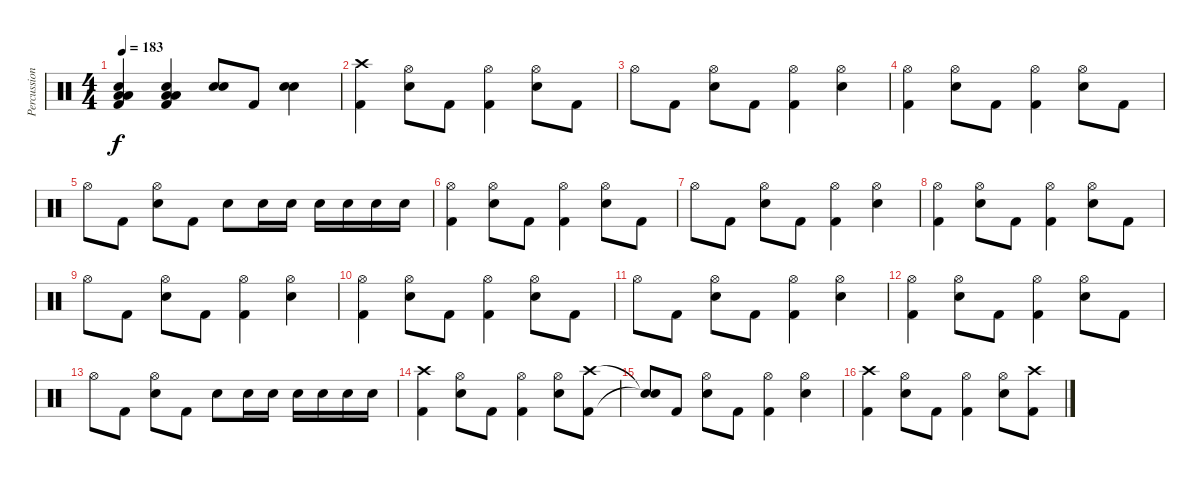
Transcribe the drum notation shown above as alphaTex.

\track ("Percussion" "Percussion") {instrument percussion}
\staff {score}
\articulation defaults
\ts (4 4)
\tempo 183
\clef neutral
\ks c
("Electric Snare (hit)" "Low Floor Tom (hit)" "Low Floor Tom (hit)" "Kick (hit) 2").4{dy f} ("Electric Snare (hit)" "Low Floor Tom (hit)" "Low Floor Tom (hit)" "Kick (hit) 2").4 ("Electric Snare (hit)" "Electric Snare (hit)").8 "Kick (hit) 2".8 ("Electric Snare (hit)" "Electric Snare (hit)").4 |
("Crash high (hit)" "Kick (hit) 2").4 ("Hi-Hat (open)" "Electric Snare (hit)").8 "Kick (hit) 2".8 ("Hi-Hat (open)" "Kick (hit) 2").4 ("Hi-Hat (open)" "Electric Snare (hit)").8 "Kick (hit) 2".8 |
"Hi-Hat (open)".8 "Kick (hit) 2".8 ("Hi-Hat (open)" "Electric Snare (hit)").8 "Kick (hit) 2".8 ("Hi-Hat (open)" "Kick (hit) 2").4 ("Hi-Hat (open)" "Electric Snare (hit)").4 |
("Hi-Hat (open)" "Kick (hit) 2").4 ("Hi-Hat (open)" "Electric Snare (hit)").8 "Kick (hit) 2".8 ("Hi-Hat (open)" "Kick (hit) 2").4 ("Hi-Hat (open)" "Electric Snare (hit)").8 "Kick (hit) 2".8 |
"Hi-Hat (open)".8 "Kick (hit) 2".8 ("Hi-Hat (open)" "Electric Snare (hit)").8 "Kick (hit) 2".8 "Electric Snare (hit)".8 "Electric Snare (hit)".16 "Electric Snare (hit)".16 "Electric Snare (hit)".16 "Electric Snare (hit)".16 "Electric Snare (hit)".16 "Electric Snare (hit)".16 |
("Hi-Hat (open)" "Kick (hit) 2").4 ("Hi-Hat (open)" "Electric Snare (hit)").8 "Kick (hit) 2".8 ("Hi-Hat (open)" "Kick (hit) 2").4 ("Hi-Hat (open)" "Electric Snare (hit)").8 "Kick (hit) 2".8 |
"Hi-Hat (open)".8 "Kick (hit) 2".8 ("Hi-Hat (open)" "Electric Snare (hit)").8 "Kick (hit) 2".8 ("Hi-Hat (open)" "Kick (hit) 2").4 ("Hi-Hat (open)" "Electric Snare (hit)").4 |
("Hi-Hat (open)" "Kick (hit) 2").4 ("Hi-Hat (open)" "Electric Snare (hit)").8 "Kick (hit) 2".8 ("Hi-Hat (open)" "Kick (hit) 2").4 ("Hi-Hat (open)" "Electric Snare (hit)").8 "Kick (hit) 2".8 |
"Hi-Hat (open)".8 "Kick (hit) 2".8 ("Hi-Hat (open)" "Electric Snare (hit)").8 "Kick (hit) 2".8 ("Hi-Hat (open)" "Kick (hit) 2").4 ("Hi-Hat (open)" "Electric Snare (hit)").4 |
("Hi-Hat (open)" "Kick (hit) 2").4 ("Hi-Hat (open)" "Electric Snare (hit)").8 "Kick (hit) 2".8 ("Hi-Hat (open)" "Kick (hit) 2").4 ("Hi-Hat (open)" "Electric Snare (hit)").8 "Kick (hit) 2".8 |
"Hi-Hat (open)".8 "Kick (hit) 2".8 ("Hi-Hat (open)" "Electric Snare (hit)").8 "Kick (hit) 2".8 ("Hi-Hat (open)" "Kick (hit) 2").4 ("Hi-Hat (open)" "Electric Snare (hit)").4 |
("Hi-Hat (open)" "Kick (hit) 2").4 ("Hi-Hat (open)" "Electric Snare (hit)").8 "Kick (hit) 2".8 ("Hi-Hat (open)" "Kick (hit) 2").4 ("Hi-Hat (open)" "Electric Snare (hit)").8 "Kick (hit) 2".8 |
"Hi-Hat (open)".8 "Kick (hit) 2".8 ("Hi-Hat (open)" "Electric Snare (hit)").8 "Kick (hit) 2".8 "Electric Snare (hit)".8 "Electric Snare (hit)".16 "Electric Snare (hit)".16 "Electric Snare (hit)".16 "Electric Snare (hit)".16 "Electric Snare (hit)".16 "Electric Snare (hit)".16 |
("Crash high (hit)" "Kick (hit) 2").4 ("Hi-Hat (open)" "Electric Snare (hit)").8 "Kick (hit) 2".8 ("Hi-Hat (open)" "Kick (hit) 2").4 ("Hi-Hat (open)" "Electric Snare (hit)").8 ("Crash high (hit)" "Kick (hit) 2").8 |
("Snare (hit)"{t} "Snare (hit)"{t}).8 "Kick (hit) 2".8 ("Hi-Hat (open)" "Electric Snare (hit)").8 "Kick (hit) 2".8 ("Hi-Hat (open)" "Kick (hit) 2").4 ("Hi-Hat (open)" "Electric Snare (hit)").4 |
("Crash high (hit)" "Kick (hit) 2").4 ("Hi-Hat (open)" "Electric Snare (hit)").8 "Kick (hit) 2".8 ("Hi-Hat (open)" "Kick (hit) 2").4 ("Hi-Hat (open)" "Electric Snare (hit)").8 ("Crash high (hit)" "Kick (hit) 2").8
